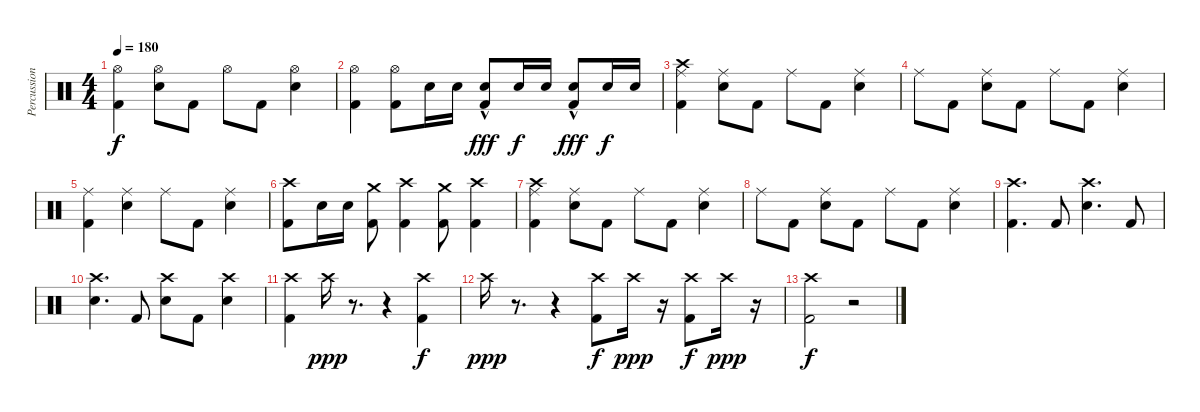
\track ("Percussion" "Percussion") {instrument percussion}
\staff {score}
\articulation defaults
\ts (4 4)
\tempo 180
\clef neutral
\ks c
("Hi-Hat (open)" "Kick (hit) 2").4{dy f} ("Hi-Hat (open)" "Electric Snare (hit)").8 "Kick (hit) 2".8 "Hi-Hat (open)".8 "Kick (hit) 2".8 ("Hi-Hat (open)" "Electric Snare (hit)").4 |
("Hi-Hat (open)" "Kick (hit) 2").4 ("Hi-Hat (open)" "Kick (hit) 2").8 "Electric Snare (hit)".16 "Electric Snare (hit)".16 ("Electric Snare (hit)"{hac} "Kick (hit) 2").8{dy fff} "Electric Snare (hit)".16{dy f} "Electric Snare (hit)".16 ("Electric Snare (hit)"{hac} "Kick (hit) 2").8{dy fff} "Electric Snare (hit)".16{dy f} "Electric Snare (hit)".16 |
("Ride (middle)" "Crash high (hit)" "Kick (hit) 2").4 ("Ride (middle)" "Electric Snare (hit)").8 "Kick (hit) 2".8 "Ride (middle)".8 "Kick (hit) 2".8 ("Ride (middle)" "Electric Snare (hit)").4 |
"Ride (middle)".8 "Kick (hit) 2".8 ("Ride (middle)" "Electric Snare (hit)").8 "Kick (hit) 2".8 "Ride (middle)".8 "Kick (hit) 2".8 ("Ride (middle)" "Electric Snare (hit)").4 |
("Ride (middle)" "Kick (hit) 2").4 ("Ride (middle)" "Electric Snare (hit)").4 "Ride (middle)".8 "Kick (hit) 2".8 ("Ride (middle)" "Electric Snare (hit)").4 |
("Crash high (hit)" "Kick (hit) 2").8 "Electric Snare (hit)".16 "Electric Snare (hit)".16 ("Crash medium (hit)" "Kick (hit) 2").8 ("Crash high (hit)" "Kick (hit) 2").4 ("Crash medium (hit)" "Kick (hit) 2").8 ("Crash high (hit)" "Kick (hit) 2").4 |
("Ride (middle)" "Crash high (hit)" "Kick (hit) 2").4 ("Ride (middle)" "Electric Snare (hit)").8 "Kick (hit) 2".8 "Ride (middle)".8 "Kick (hit) 2".8 ("Ride (middle)" "Electric Snare (hit)").4 |
"Ride (middle)".8 "Kick (hit) 2".8 ("Ride (middle)" "Electric Snare (hit)").8 "Kick (hit) 2".8 "Ride (middle)".8 "Kick (hit) 2".8 ("Ride (middle)" "Electric Snare (hit)").4 |
("Crash high (hit)" "Kick (hit) 2").4{d} "Kick (hit) 2".8 ("Crash high (hit)" "Electric Snare (hit)").4{d} "Kick (hit) 2".8 |
("Crash high (hit)" "Electric Snare (hit)").4{d} "Kick (hit) 2".8 ("Crash high (hit)" "Electric Snare (hit)").8 "Kick (hit) 2".8 ("Crash high (hit)" "Electric Snare (hit)").4 |
("Crash high (hit)" "Kick (hit) 2").4 "Crash high (hit)".16{dy ppp} r.8{d} r.4 ("Crash high (hit)" "Kick (hit) 2").4{dy f} |
"Crash high (hit)".16{dy ppp} r.8{d} r.4 ("Crash high (hit)" "Kick (hit) 2").8{dy f} "Crash high (hit)".16{dy ppp} r.16 ("Crash high (hit)" "Kick (hit) 2").8{dy f} "Crash high (hit)".16{dy ppp} r.16 |
("Crash high (hit)" "Kick (hit) 2").2{dy f} r.2
